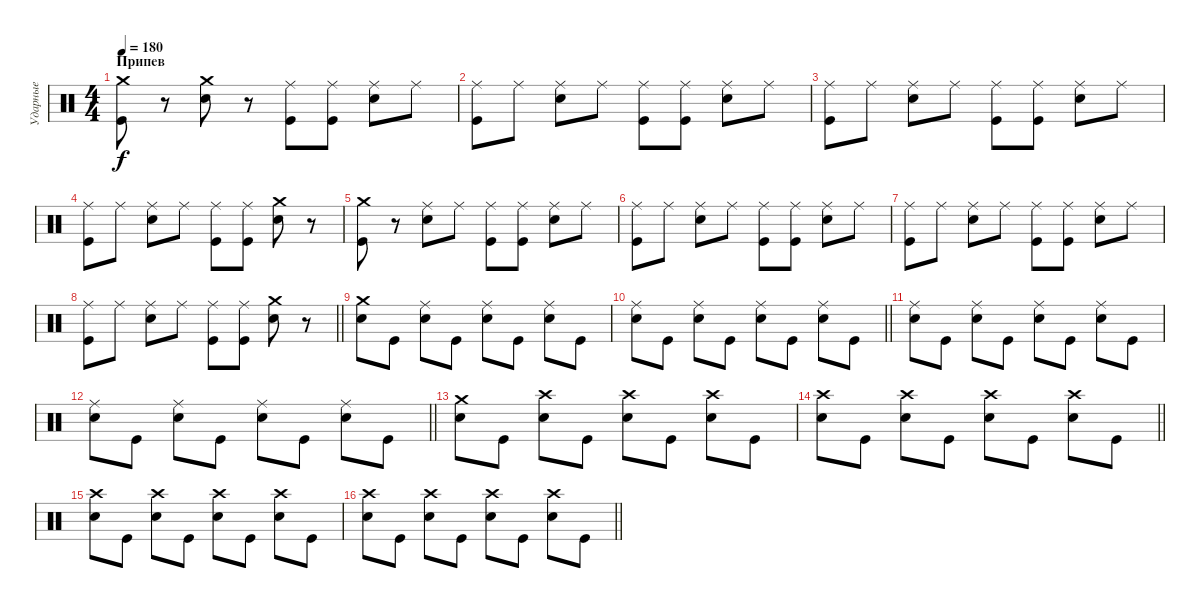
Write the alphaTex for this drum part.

\track ("Ударные" "Ударные") {instrument percussion}
\staff {score}
\articulation defaults
\ts (4 4)
\section ("" "Припев")
\tempo 180
\clef neutral
\ks c
("Crash medium (hit)" "Kick (hit)").8{dy f} r.8 ("Crash medium (hit)" "Electric Snare (hit)").8 r.8 ("Ride (middle)" "Kick (hit)").8 ("Ride (middle)" "Kick (hit)").8 ("Ride (middle)" "Electric Snare (hit)").8 "Ride (middle)".8 |
("Ride (middle)" "Kick (hit)").8 "Ride (middle)".8 ("Ride (middle)" "Electric Snare (hit)").8 "Ride (middle)".8 ("Ride (middle)" "Kick (hit)").8 ("Ride (middle)" "Kick (hit)").8 ("Ride (middle)" "Electric Snare (hit)").8 "Ride (middle)".8 |
("Ride (middle)" "Kick (hit)").8 "Ride (middle)".8 ("Ride (middle)" "Electric Snare (hit)").8 "Ride (middle)".8 ("Ride (middle)" "Kick (hit)").8 ("Ride (middle)" "Kick (hit)").8 ("Ride (middle)" "Electric Snare (hit)").8 "Ride (middle)".8 |
("Ride (middle)" "Kick (hit)").8 "Ride (middle)".8 ("Ride (middle)" "Electric Snare (hit)").8 "Ride (middle)".8 ("Ride (middle)" "Kick (hit)").8 ("Ride (middle)" "Kick (hit)").8 ("Crash medium (hit)" "Electric Snare (hit)").8 r.8 |
("Crash medium (hit)" "Kick (hit)").8 r.8 ("Ride (middle)" "Electric Snare (hit)").8 "Ride (middle)".8 ("Ride (middle)" "Kick (hit)").8 ("Ride (middle)" "Kick (hit)").8 ("Ride (middle)" "Electric Snare (hit)").8 "Ride (middle)".8 |
("Ride (middle)" "Kick (hit)").8 "Ride (middle)".8 ("Ride (middle)" "Electric Snare (hit)").8 "Ride (middle)".8 ("Ride (middle)" "Kick (hit)").8 ("Ride (middle)" "Kick (hit)").8 ("Ride (middle)" "Electric Snare (hit)").8 "Ride (middle)".8 |
("Ride (middle)" "Kick (hit)").8 "Ride (middle)".8 ("Ride (middle)" "Electric Snare (hit)").8 "Ride (middle)".8 ("Ride (middle)" "Kick (hit)").8 ("Ride (middle)" "Kick (hit)").8 ("Ride (middle)" "Electric Snare (hit)").8 "Ride (middle)".8 |
\barLineRight lightlight
("Ride (middle)" "Kick (hit)").8 "Ride (middle)".8 ("Ride (middle)" "Electric Snare (hit)").8 "Ride (middle)".8 ("Ride (middle)" "Kick (hit)").8 ("Ride (middle)" "Kick (hit)").8 ("Crash medium (hit)" "Electric Snare (hit)").8 r.8 |
\section ("" " ")
("Crash medium (hit)" "Electric Snare (hit)").8 "Kick (hit)".8 ("Ride (middle)" "Electric Snare (hit)").8 "Kick (hit)".8 ("Ride (middle)" "Electric Snare (hit)").8 "Kick (hit)".8 ("Ride (middle)" "Electric Snare (hit)").8 "Kick (hit)".8 |
\barLineRight lightlight
("Ride (middle)" "Electric Snare (hit)").8 "Kick (hit)".8 ("Ride (middle)" "Electric Snare (hit)").8 "Kick (hit)".8 ("Ride (middle)" "Electric Snare (hit)").8 "Kick (hit)".8 ("Ride (middle)" "Electric Snare (hit)").8 "Kick (hit)".8 |
("Ride (middle)" "Electric Snare (hit)").8 "Kick (hit)".8 ("Ride (middle)" "Electric Snare (hit)").8 "Kick (hit)".8 ("Ride (middle)" "Electric Snare (hit)").8 "Kick (hit)".8 ("Ride (middle)" "Electric Snare (hit)").8 "Kick (hit)".8 |
\barLineRight lightlight
("Ride (middle)" "Electric Snare (hit)").8 "Kick (hit)".8 ("Ride (middle)" "Electric Snare (hit)").8 "Kick (hit)".8 ("Ride (middle)" "Electric Snare (hit)").8 "Kick (hit)".8 ("Ride (middle)" "Electric Snare (hit)").8 "Kick (hit)".8 |
("Crash medium (hit)" "Electric Snare (hit)").8 "Kick (hit)".8 ("Crash high (hit)" "Electric Snare (hit)").8 "Kick (hit)".8 ("Crash high (hit)" "Electric Snare (hit)").8 "Kick (hit)".8 ("Crash high (hit)" "Electric Snare (hit)").8 "Kick (hit)".8 |
\barLineRight lightlight
("Crash high (hit)" "Electric Snare (hit)").8 "Kick (hit)".8 ("Crash high (hit)" "Electric Snare (hit)").8 "Kick (hit)".8 ("Crash high (hit)" "Electric Snare (hit)").8 "Kick (hit)".8 ("Crash high (hit)" "Electric Snare (hit)").8 "Kick (hit)".8 |
("Crash high (hit)" "Electric Snare (hit)").8 "Kick (hit)".8 ("Crash high (hit)" "Electric Snare (hit)").8 "Kick (hit)".8 ("Crash high (hit)" "Electric Snare (hit)").8 "Kick (hit)".8 ("Crash high (hit)" "Electric Snare (hit)").8 "Kick (hit)".8 |
\barLineRight lightlight
("Crash high (hit)" "Electric Snare (hit)").8 "Kick (hit)".8 ("Crash high (hit)" "Electric Snare (hit)").8 "Kick (hit)".8 ("Crash high (hit)" "Electric Snare (hit)").8 "Kick (hit)".8 ("Crash high (hit)" "Electric Snare (hit)").8 "Kick (hit)".8
